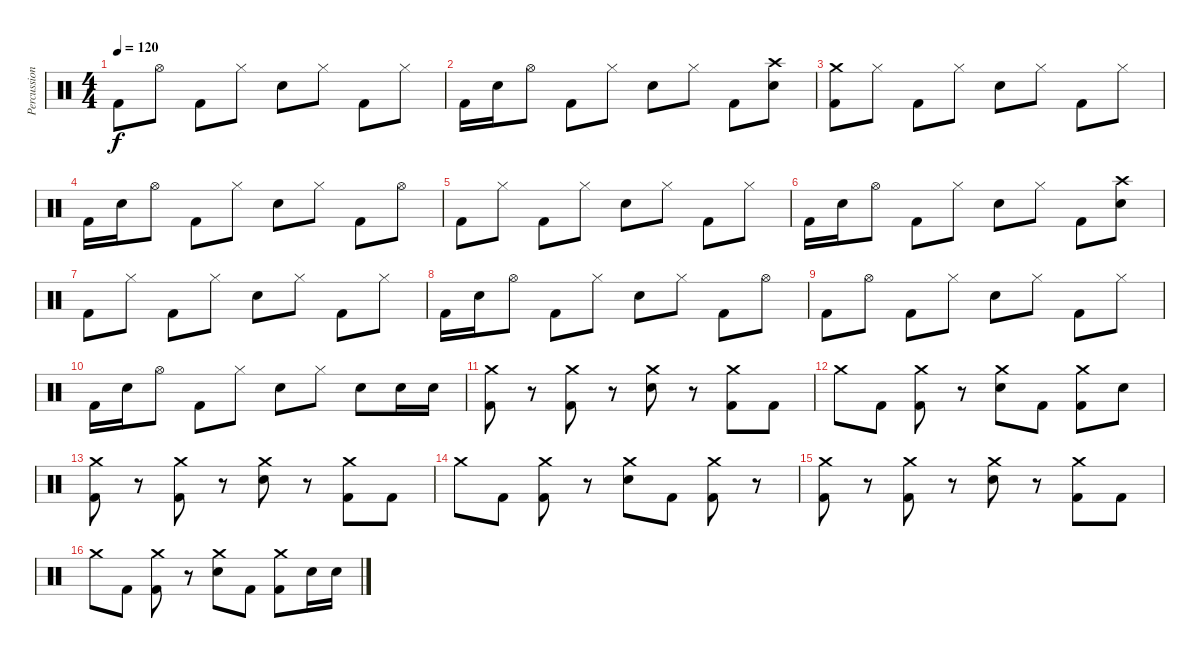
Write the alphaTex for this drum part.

\track ("Percussion" "Percussion") {instrument percussion}
\staff {score}
\articulation defaults
\ts (4 4)
\tempo 120
\clef neutral
\ks c "Kick (hit) 2".8{dy f} "Hi-Hat (open)".8 "Kick (hit) 2".8 "Hi-Hat (closed)".8 "Snare (hit) 2".8 "Hi-Hat (closed)".8 "Kick (hit) 2".8 "Hi-Hat (closed)".8
|
"Kick (hit) 2".16 "Snare (hit) 2".16 "Hi-Hat (open)".8 "Kick (hit) 2".8 "Hi-Hat (closed)".8 "Snare (hit) 2".8 "Hi-Hat (closed)".8 "Kick (hit) 2".8 ("Crash high (hit)" "Snare (hit) 2").8 |
("Crash medium (hit)" "Kick (hit) 2").8 "Hi-Hat (closed)".8 "Kick (hit) 2".8 "Hi-Hat (closed)".8 "Snare (hit) 2".8 "Hi-Hat (closed)".8 "Kick (hit) 2".8 "Hi-Hat (closed)".8 |
"Kick (hit) 2".16 "Snare (hit) 2".16 "Hi-Hat (open)".8 "Kick (hit) 2".8 "Hi-Hat (closed)".8 "Snare (hit) 2".8 "Hi-Hat (closed)".8 "Kick (hit) 2".8 "Hi-Hat (open)".8 |
"Kick (hit) 2".8 "Hi-Hat (closed)".8 "Kick (hit) 2".8 "Hi-Hat (closed)".8 "Snare (hit) 2".8 "Hi-Hat (closed)".8 "Kick (hit) 2".8 "Hi-Hat (closed)".8 |
"Kick (hit) 2".16 "Snare (hit) 2".16 "Hi-Hat (open)".8 "Kick (hit) 2".8 "Hi-Hat (closed)".8 "Snare (hit) 2".8 "Hi-Hat (closed)".8 "Kick (hit) 2".8 ("Crash high (hit)" "Snare (hit) 2").8 |
"Kick (hit) 2".8 "Hi-Hat (closed)".8 "Kick (hit) 2".8 "Hi-Hat (closed)".8 "Snare (hit) 2".8 "Hi-Hat (closed)".8 "Kick (hit) 2".8 "Hi-Hat (closed)".8 |
"Kick (hit) 2".16 "Snare (hit) 2".16 "Hi-Hat (open)".8 "Kick (hit) 2".8 "Hi-Hat (closed)".8 "Snare (hit) 2".8 "Hi-Hat (closed)".8 "Kick (hit) 2".8 "Hi-Hat (open)".8 |
"Kick (hit) 2".8 "Hi-Hat (open)".8 "Kick (hit) 2".8 "Hi-Hat (closed)".8 "Snare (hit) 2".8 "Hi-Hat (closed)".8 "Kick (hit) 2".8 "Hi-Hat (closed)".8 |
"Kick (hit) 2".16 "Snare (hit) 2".16 "Hi-Hat (open)".8 "Kick (hit) 2".8 "Hi-Hat (closed)".8 "Snare (hit) 2".8 "Hi-Hat (closed)".8 "Snare (hit) 2".8 "Snare (hit) 2".16 "Snare (hit) 2".16 |
("Crash medium (hit)" "Kick (hit) 2").8 r.8 ("Crash medium (hit)" "Kick (hit) 2").8 r.8 ("Crash medium (hit)" "Snare (hit) 2").8 r.8 ("Crash medium (hit)" "Kick (hit) 2").8 "Kick (hit) 2".8 |
"Crash medium (hit)".8 "Kick (hit) 2".8 ("Crash medium (hit)" "Kick (hit) 2").8 r.8 ("Crash medium (hit)" "Snare (hit) 2").8 "Kick (hit) 2".8 ("Crash medium (hit)" "Kick (hit) 2").8 "Snare (hit) 2".8 |
("Crash medium (hit)" "Kick (hit) 2").8 r.8 ("Crash medium (hit)" "Kick (hit) 2").8 r.8 ("Crash medium (hit)" "Snare (hit) 2").8 r.8 ("Crash medium (hit)" "Kick (hit) 2").8 "Kick (hit) 2".8 |
"Crash medium (hit)".8 "Kick (hit) 2".8 ("Crash medium (hit)" "Kick (hit) 2").8 r.8 ("Crash medium (hit)" "Snare (hit) 2").8 "Kick (hit) 2".8 ("Crash medium (hit)" "Kick (hit) 2").8 r.8 |
("Crash medium (hit)" "Kick (hit) 2").8 r.8 ("Crash medium (hit)" "Kick (hit) 2").8 r.8 ("Crash medium (hit)" "Snare (hit) 2").8 r.8 ("Crash medium (hit)" "Kick (hit) 2").8 "Kick (hit) 2".8 |
"Crash medium (hit)".8 "Kick (hit) 2".8 ("Crash medium (hit)" "Kick (hit) 2").8 r.8 ("Crash medium (hit)" "Snare (hit) 2").8 "Kick (hit) 2".8 ("Crash medium (hit)" "Kick (hit) 2").8 "Electric Snare (hit)".16 "Electric Snare (hit)".16
